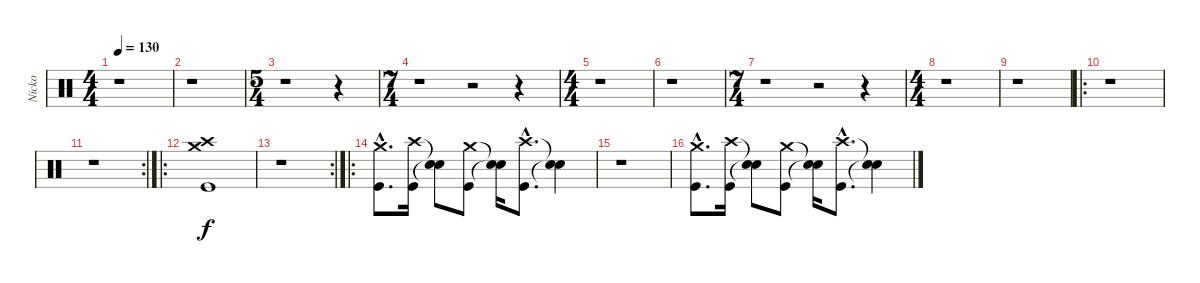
\track ("Nicko" "Nicko") {instrument percussion}
\staff {score}
\articulation defaults
\ts (4 4)
\tempo 130
\clef neutral
\ks c
r.1{dy f} |
r.1 |
\ts (5 4)
r.1 r.4 |
\ts (7 4)
r.1 r.2 r.4 |
\ts (4 4)
r.1 |
r.1 |
\ts (7 4)
r.1 r.2 r.4 |
\ts (4 4)
r.1 |
r.1 |
\ro
r.1 |
\rc 2
r.1 |
\ro
("Crash medium (hit)" "Crash high (hit)" "Kick (hit)").1 |
\rc 2
r.1 |
\ro
("Crash medium (hit)"{hac} "Kick (hit)"{hac}).8{d} ("Crash high (hit)" "Kick (hit)").16 ("Snare (hit)"{t} "Snare (hit)"{t}).8 ("Crash medium (hit)" "Kick (hit)").8 ("Snare (hit)"{t} "Snare (hit)"{t}).16 ("Crash high (hit)"{hac} "Kick (hit)"{hac}).8{d} ("Snare (hit)"{t} "Snare (hit)"{t}).4 |
r.1 |
("Crash medium (hit)"{hac} "Kick (hit)"{hac}).8{d} ("Crash high (hit)" "Kick (hit)").16 ("Snare (hit)"{t} "Snare (hit)"{t}).8 ("Crash medium (hit)" "Kick (hit)").8 ("Snare (hit)"{t} "Snare (hit)"{t}).16 ("Crash high (hit)"{hac} "Kick (hit)"{hac}).8{d} ("Snare (hit)"{t} "Snare (hit)"{t}).4
